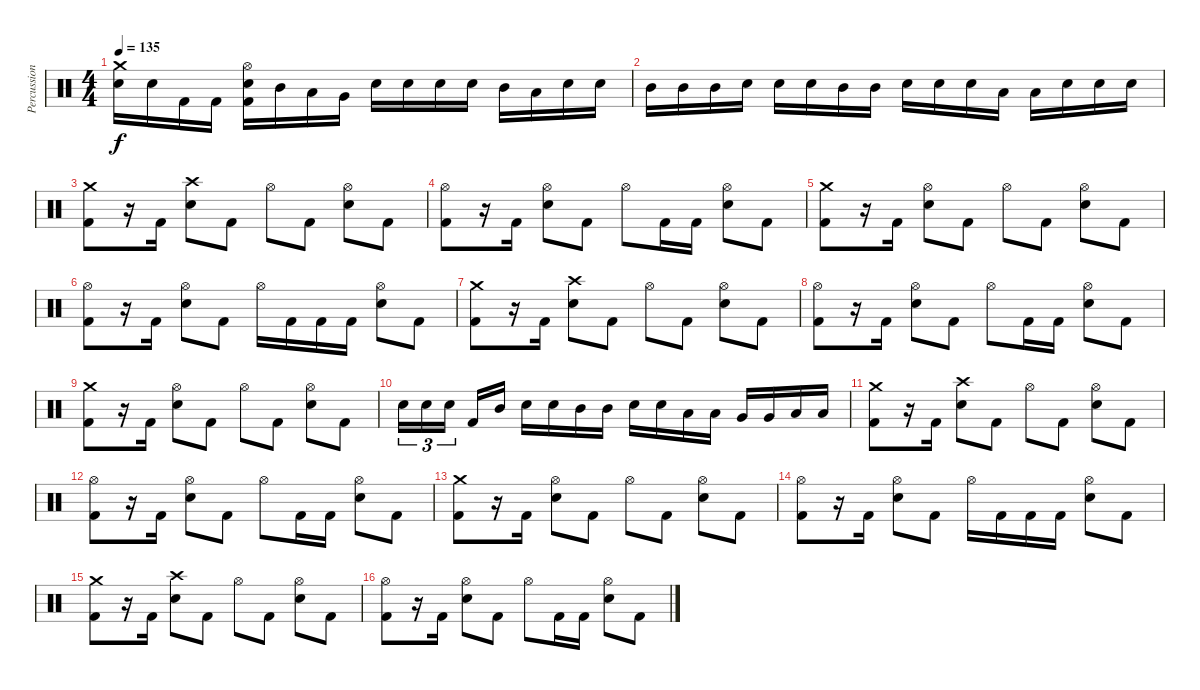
\track ("Percussion" "Percussion") {instrument percussion}
\staff {score}
\articulation defaults
\ts (4 4)
\tempo 135
\clef neutral
\ks c
("Crash medium (hit)" "Electric Snare (hit)").16{dy f} "Electric Snare (hit)".16 "Kick (hit) 2".16 "Kick (hit) 2".16 ("Hi-Hat (open)" "Electric Snare (hit)" "Kick (hit) 2").16 "Mid Tom (hit)".16 "Low Tom (hit)".16 "Very Low Tom (hit)".16 "Electric Snare (hit)".16 "Electric Snare (hit)".16 "Electric Snare (hit)".16 "Electric Snare (hit)".16 "Mid Tom (hit)".16 "Low Tom (hit)".16 "Electric Snare (hit)".16 "Electric Snare (hit)".16 |
"Mid Tom (hit)".16 "Mid Tom (hit)".16 "Mid Tom (hit)".16 "Electric Snare (hit)".16 "Electric Snare (hit)".16 "Electric Snare (hit)".16 "Mid Tom (hit)".16 "Mid Tom (hit)".16 "Electric Snare (hit)".16 "Electric Snare (hit)".16 "Electric Snare (hit)".16 "Low Tom (hit)".16 "Low Tom (hit)".16 "Electric Snare (hit)".16 "Electric Snare (hit)".16 "Electric Snare (hit)".16 |
("Crash medium (hit)" "Kick (hit) 2").8 r.16 "Kick (hit) 2".16 ("Crash high (hit)" "Electric Snare (hit)").8 "Kick (hit) 2".8 "Hi-Hat (open)".8 "Kick (hit) 2".8 ("Hi-Hat (open)" "Electric Snare (hit)").8 "Kick (hit) 2".8 |
("Hi-Hat (open)" "Kick (hit) 2").8 r.16 "Kick (hit) 2".16 ("Hi-Hat (open)" "Electric Snare (hit)").8 "Kick (hit) 2".8 "Hi-Hat (open)".8 "Kick (hit) 2".16 "Kick (hit) 2".16 ("Hi-Hat (open)" "Electric Snare (hit)").8 "Kick (hit) 2".8 |
("Crash medium (hit)" "Kick (hit) 2").8 r.16 "Kick (hit) 2".16 ("Hi-Hat (open)" "Electric Snare (hit)").8 "Kick (hit) 2".8 "Hi-Hat (open)".8 "Kick (hit) 2".8 ("Hi-Hat (open)" "Electric Snare (hit)").8 "Kick (hit) 2".8 |
("Hi-Hat (open)" "Kick (hit) 2").8 r.16 "Kick (hit) 2".16 ("Hi-Hat (open)" "Electric Snare (hit)").8 "Kick (hit) 2".8 "Hi-Hat (open)".16 "Kick (hit) 2".16 "Kick (hit) 2".16 "Kick (hit) 2".16 ("Hi-Hat (open)" "Electric Snare (hit)").8 "Kick (hit) 2".8 |
("Crash medium (hit)" "Kick (hit) 2").8 r.16 "Kick (hit) 2".16 ("Crash high (hit)" "Electric Snare (hit)").8 "Kick (hit) 2".8 "Hi-Hat (open)".8 "Kick (hit) 2".8 ("Hi-Hat (open)" "Electric Snare (hit)").8 "Kick (hit) 2".8 |
("Hi-Hat (open)" "Kick (hit) 2").8 r.16 "Kick (hit) 2".16 ("Hi-Hat (open)" "Electric Snare (hit)").8 "Kick (hit) 2".8 "Hi-Hat (open)".8 "Kick (hit) 2".16 "Kick (hit) 2".16 ("Hi-Hat (open)" "Electric Snare (hit)").8 "Kick (hit) 2".8 |
("Crash medium (hit)" "Kick (hit) 2").8 r.16 "Kick (hit) 2".16 ("Hi-Hat (open)" "Electric Snare (hit)").8 "Kick (hit) 2".8 "Hi-Hat (open)".8 "Kick (hit) 2".8 ("Hi-Hat (open)" "Electric Snare (hit)").8 "Kick (hit) 2".8 |
"Electric Snare (hit)".16{tu (3 2)} "Electric Snare (hit)".16{tu (3 2)} "Electric Snare (hit)".16{tu (3 2)} "Kick (hit) 2".16 "Mid Tom (hit)".16 "Electric Snare (hit)".16 "Electric Snare (hit)".16 "Mid Tom (hit)".16 "Mid Tom (hit)".16 "Electric Snare (hit)".16 "Electric Snare (hit)".16 "Low Tom (hit)".16 "Low Tom (hit)".16 "Very Low Tom (hit)".16 "Very Low Tom (hit)".16 "Low Floor Tom (hit)".16 "Low Floor Tom (hit)".16 |
("Crash medium (hit)" "Kick (hit) 2").8 r.16 "Kick (hit) 2".16 ("Crash high (hit)" "Electric Snare (hit)").8 "Kick (hit) 2".8 "Hi-Hat (open)".8 "Kick (hit) 2".8 ("Hi-Hat (open)" "Electric Snare (hit)").8 "Kick (hit) 2".8 |
("Hi-Hat (open)" "Kick (hit) 2").8 r.16 "Kick (hit) 2".16 ("Hi-Hat (open)" "Electric Snare (hit)").8 "Kick (hit) 2".8 "Hi-Hat (open)".8 "Kick (hit) 2".16 "Kick (hit) 2".16 ("Hi-Hat (open)" "Electric Snare (hit)").8 "Kick (hit) 2".8 |
("Crash medium (hit)" "Kick (hit) 2").8 r.16 "Kick (hit) 2".16 ("Hi-Hat (open)" "Electric Snare (hit)").8 "Kick (hit) 2".8 "Hi-Hat (open)".8 "Kick (hit) 2".8 ("Hi-Hat (open)" "Electric Snare (hit)").8 "Kick (hit) 2".8 |
("Hi-Hat (open)" "Kick (hit) 2").8 r.16 "Kick (hit) 2".16 ("Hi-Hat (open)" "Electric Snare (hit)").8 "Kick (hit) 2".8 "Hi-Hat (open)".16 "Kick (hit) 2".16 "Kick (hit) 2".16 "Kick (hit) 2".16 ("Hi-Hat (open)" "Electric Snare (hit)").8 "Kick (hit) 2".8 |
("Crash medium (hit)" "Kick (hit) 2").8 r.16 "Kick (hit) 2".16 ("Crash high (hit)" "Electric Snare (hit)").8 "Kick (hit) 2".8 "Hi-Hat (open)".8 "Kick (hit) 2".8 ("Hi-Hat (open)" "Electric Snare (hit)").8 "Kick (hit) 2".8 |
("Hi-Hat (open)" "Kick (hit) 2").8 r.16 "Kick (hit) 2".16 ("Hi-Hat (open)" "Electric Snare (hit)").8 "Kick (hit) 2".8 "Hi-Hat (open)".8 "Kick (hit) 2".16 "Kick (hit) 2".16 ("Hi-Hat (open)" "Electric Snare (hit)").8 "Kick (hit) 2".8
